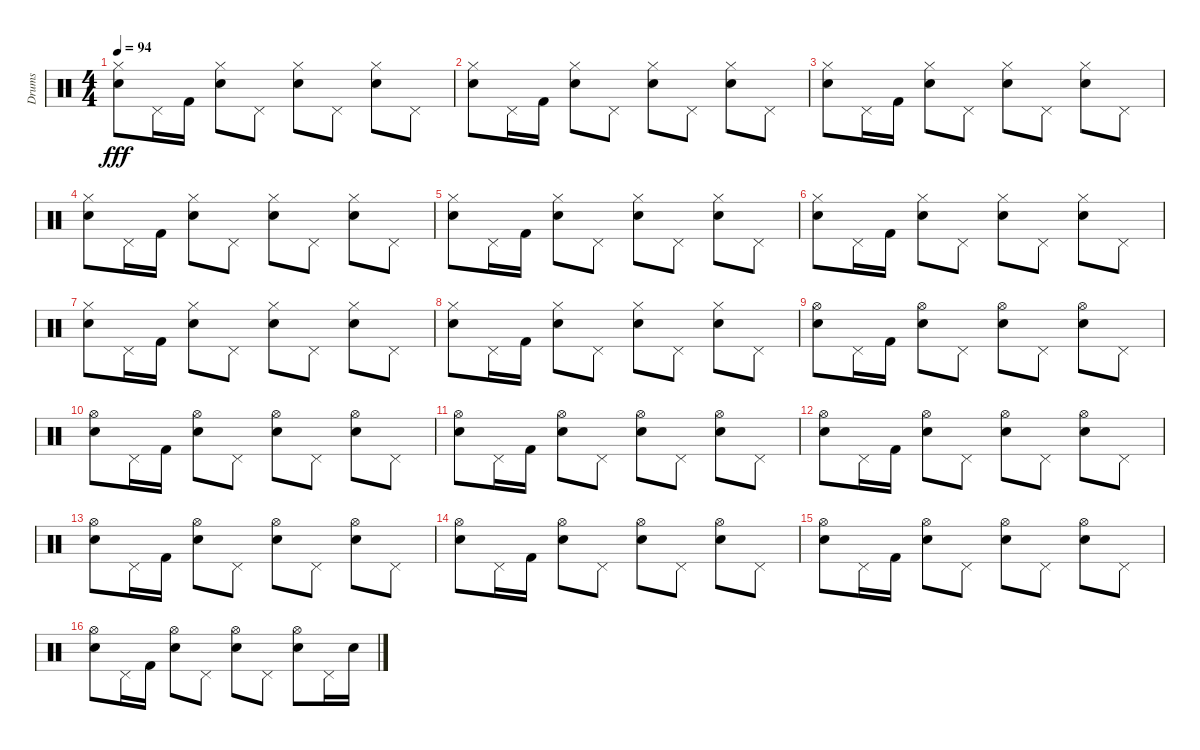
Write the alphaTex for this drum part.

\track ("Drums" "Drums") {instrument percussion}
\staff {score}
\articulation defaults
\ts (4 4)
\tempo 94
\clef neutral
\ks c
("Hi-Hat (closed)" "Electric Snare (hit)").8{dy fff} "Pedal Hi-Hat (hit)".16 "Kick (hit) 2".16 ("Hi-Hat (closed)" "Electric Snare (hit)").8 "Pedal Hi-Hat (hit)".8 ("Hi-Hat (closed)" "Electric Snare (hit)").8 "Pedal Hi-Hat (hit)".8 ("Hi-Hat (closed)" "Electric Snare (hit)").8 "Pedal Hi-Hat (hit)".8 |
("Hi-Hat (closed)" "Electric Snare (hit)").8 "Pedal Hi-Hat (hit)".16 "Kick (hit) 2".16 ("Hi-Hat (closed)" "Electric Snare (hit)").8 "Pedal Hi-Hat (hit)".8 ("Hi-Hat (closed)" "Electric Snare (hit)").8 "Pedal Hi-Hat (hit)".8 ("Hi-Hat (closed)" "Electric Snare (hit)").8 "Pedal Hi-Hat (hit)".8 |
("Hi-Hat (closed)" "Electric Snare (hit)").8 "Pedal Hi-Hat (hit)".16 "Kick (hit) 2".16 ("Hi-Hat (closed)" "Electric Snare (hit)").8 "Pedal Hi-Hat (hit)".8 ("Hi-Hat (closed)" "Electric Snare (hit)").8 "Pedal Hi-Hat (hit)".8 ("Hi-Hat (closed)" "Electric Snare (hit)").8 "Pedal Hi-Hat (hit)".8 |
("Hi-Hat (closed)" "Electric Snare (hit)").8 "Pedal Hi-Hat (hit)".16 "Kick (hit) 2".16 ("Hi-Hat (closed)" "Electric Snare (hit)").8 "Pedal Hi-Hat (hit)".8 ("Hi-Hat (closed)" "Electric Snare (hit)").8 "Pedal Hi-Hat (hit)".8 ("Hi-Hat (closed)" "Electric Snare (hit)").8 "Pedal Hi-Hat (hit)".8 |
("Hi-Hat (closed)" "Electric Snare (hit)").8 "Pedal Hi-Hat (hit)".16 "Kick (hit) 2".16 ("Hi-Hat (closed)" "Electric Snare (hit)").8 "Pedal Hi-Hat (hit)".8 ("Hi-Hat (closed)" "Electric Snare (hit)").8 "Pedal Hi-Hat (hit)".8 ("Hi-Hat (closed)" "Electric Snare (hit)").8 "Pedal Hi-Hat (hit)".8 |
("Hi-Hat (closed)" "Electric Snare (hit)").8 "Pedal Hi-Hat (hit)".16 "Kick (hit) 2".16 ("Hi-Hat (closed)" "Electric Snare (hit)").8 "Pedal Hi-Hat (hit)".8 ("Hi-Hat (closed)" "Electric Snare (hit)").8 "Pedal Hi-Hat (hit)".8 ("Hi-Hat (closed)" "Electric Snare (hit)").8 "Pedal Hi-Hat (hit)".8 |
("Hi-Hat (closed)" "Electric Snare (hit)").8 "Pedal Hi-Hat (hit)".16 "Kick (hit) 2".16 ("Hi-Hat (closed)" "Electric Snare (hit)").8 "Pedal Hi-Hat (hit)".8 ("Hi-Hat (closed)" "Electric Snare (hit)").8 "Pedal Hi-Hat (hit)".8 ("Hi-Hat (closed)" "Electric Snare (hit)").8 "Pedal Hi-Hat (hit)".8 |
("Hi-Hat (closed)" "Electric Snare (hit)").8 "Pedal Hi-Hat (hit)".16 "Kick (hit) 2".16 ("Hi-Hat (closed)" "Electric Snare (hit)").8 "Pedal Hi-Hat (hit)".8 ("Hi-Hat (closed)" "Electric Snare (hit)").8 "Pedal Hi-Hat (hit)".8 ("Hi-Hat (closed)" "Electric Snare (hit)").8 "Pedal Hi-Hat (hit)".8 |
("Hi-Hat (open)" "Electric Snare (hit)").8 "Pedal Hi-Hat (hit)".16 "Kick (hit) 2".16 ("Hi-Hat (open)" "Electric Snare (hit)").8 "Pedal Hi-Hat (hit)".8 ("Hi-Hat (open)" "Electric Snare (hit)").8 "Pedal Hi-Hat (hit)".8 ("Hi-Hat (open)" "Electric Snare (hit)").8 "Pedal Hi-Hat (hit)".8 |
("Hi-Hat (open)" "Electric Snare (hit)").8 "Pedal Hi-Hat (hit)".16 "Kick (hit) 2".16 ("Hi-Hat (open)" "Electric Snare (hit)").8 "Pedal Hi-Hat (hit)".8 ("Hi-Hat (open)" "Electric Snare (hit)").8 "Pedal Hi-Hat (hit)".8 ("Hi-Hat (open)" "Electric Snare (hit)").8 "Pedal Hi-Hat (hit)".8 |
("Hi-Hat (open)" "Electric Snare (hit)").8 "Pedal Hi-Hat (hit)".16 "Kick (hit) 2".16 ("Hi-Hat (open)" "Electric Snare (hit)").8 "Pedal Hi-Hat (hit)".8 ("Hi-Hat (open)" "Electric Snare (hit)").8 "Pedal Hi-Hat (hit)".8 ("Hi-Hat (open)" "Electric Snare (hit)").8 "Pedal Hi-Hat (hit)".8 |
("Hi-Hat (open)" "Electric Snare (hit)").8 "Pedal Hi-Hat (hit)".16 "Kick (hit) 2".16 ("Hi-Hat (open)" "Electric Snare (hit)").8 "Pedal Hi-Hat (hit)".8 ("Hi-Hat (open)" "Electric Snare (hit)").8 "Pedal Hi-Hat (hit)".8 ("Hi-Hat (open)" "Electric Snare (hit)").8 "Pedal Hi-Hat (hit)".8 |
("Hi-Hat (open)" "Electric Snare (hit)").8 "Pedal Hi-Hat (hit)".16 "Kick (hit) 2".16 ("Hi-Hat (open)" "Electric Snare (hit)").8 "Pedal Hi-Hat (hit)".8 ("Hi-Hat (open)" "Electric Snare (hit)").8 "Pedal Hi-Hat (hit)".8 ("Hi-Hat (open)" "Electric Snare (hit)").8 "Pedal Hi-Hat (hit)".8 |
("Hi-Hat (open)" "Electric Snare (hit)").8 "Pedal Hi-Hat (hit)".16 "Kick (hit) 2".16 ("Hi-Hat (open)" "Electric Snare (hit)").8 "Pedal Hi-Hat (hit)".8 ("Hi-Hat (open)" "Electric Snare (hit)").8 "Pedal Hi-Hat (hit)".8 ("Hi-Hat (open)" "Electric Snare (hit)").8 "Pedal Hi-Hat (hit)".8 |
("Hi-Hat (open)" "Electric Snare (hit)").8 "Pedal Hi-Hat (hit)".16 "Kick (hit) 2".16 ("Hi-Hat (open)" "Electric Snare (hit)").8 "Pedal Hi-Hat (hit)".8 ("Hi-Hat (open)" "Electric Snare (hit)").8 "Pedal Hi-Hat (hit)".8 ("Hi-Hat (open)" "Electric Snare (hit)").8 "Pedal Hi-Hat (hit)".8 |
("Hi-Hat (open)" "Electric Snare (hit)").8 "Pedal Hi-Hat (hit)".16 "Kick (hit) 2".16 ("Hi-Hat (open)" "Electric Snare (hit)").8 "Pedal Hi-Hat (hit)".8 ("Hi-Hat (open)" "Electric Snare (hit)").8 "Pedal Hi-Hat (hit)".8 ("Hi-Hat (open)" "Electric Snare (hit)").8 "Pedal Hi-Hat (hit)".16 "Electric Snare (hit)".16
